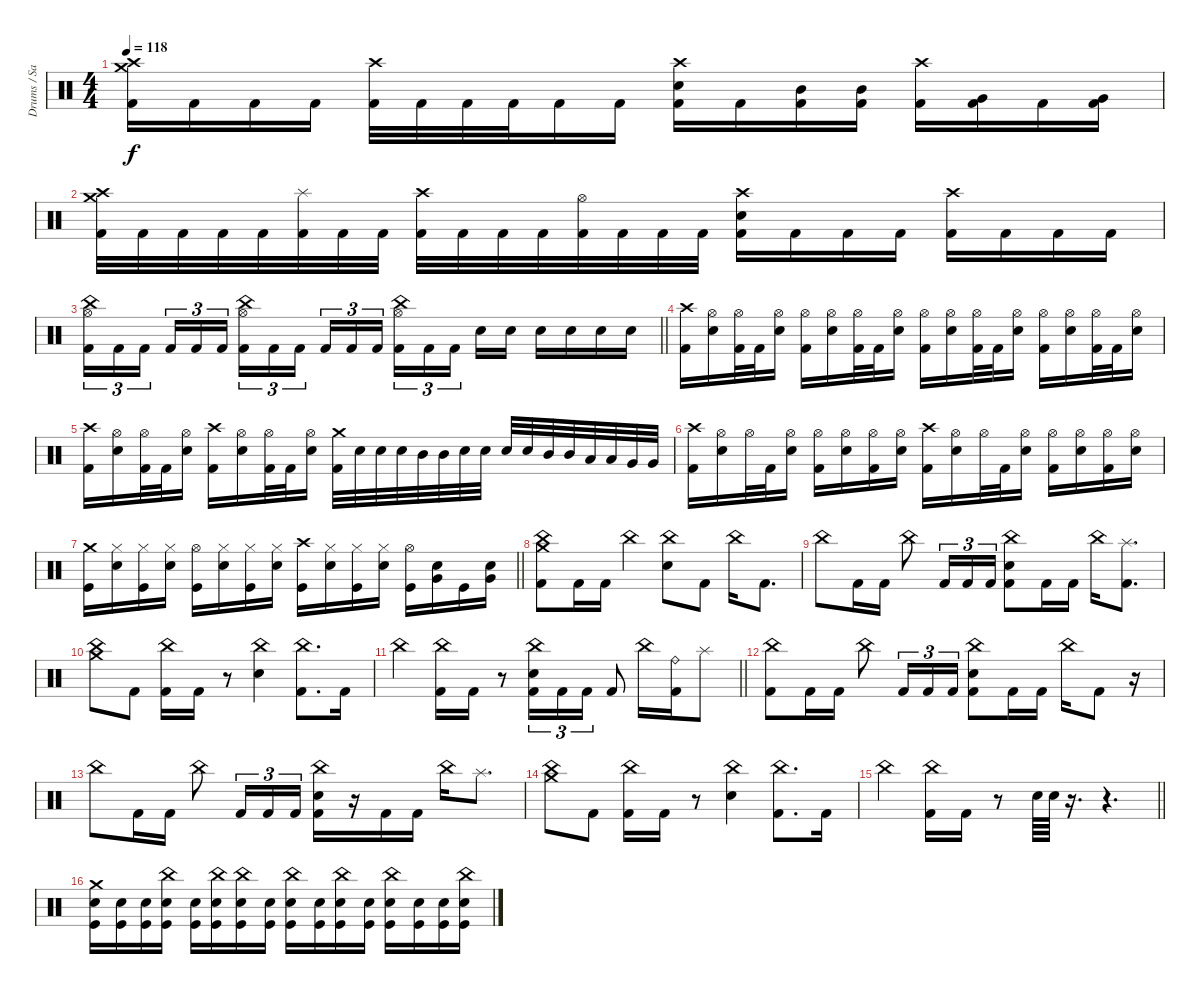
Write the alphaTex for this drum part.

\track ("Drums / Sasha" "Drums / Sa") {instrument percussion}
\staff {score}
\articulation defaults
\ts (4 4)
\tempo 118
\clef neutral
\ks c
("Crash medium (hit)" "Crash high (hit)" "Kick (hit) 2").16{dy f} "Kick (hit) 2".16 "Kick (hit) 2".16 "Kick (hit) 2".16 ("Crash high (hit)" "Kick (hit) 2").32 "Kick (hit) 2".32 "Kick (hit) 2".32 "Kick (hit) 2".32 "Kick (hit) 2".16 "Kick (hit) 2".16 ("Crash high (hit)" "Electric Snare (hit)" "Kick (hit) 2").16 "Kick (hit) 2".16 ("Mid Tom (hit)" "Kick (hit) 2").16 ("Mid Tom (hit)" "Kick (hit) 2").16 ("Crash high (hit)" "Kick (hit) 2").16 ("Very Low Tom (hit)" "Kick (hit) 2").16 "Kick (hit) 2".16 ("Very Low Tom (hit)" "Kick (hit) 2").16 |
("Crash high (hit)" "Crash medium (hit)" "Kick (hit) 2").32 "Kick (hit) 2".32 "Kick (hit) 2".32 "Kick (hit) 2".32 "Kick (hit) 2".32 ("Splash (hit)" "Kick (hit) 2").32 "Kick (hit) 2".32 "Kick (hit) 2".32 ("Crash high (hit)" "Kick (hit) 2").32 "Kick (hit) 2".32 "Kick (hit) 2".32 "Kick (hit) 2".32 ("Hi-Hat (open)" "Kick (hit) 2").32 "Kick (hit) 2".32 "Kick (hit) 2".32 "Kick (hit) 2".32 ("Crash high (hit)" "Electric Snare (hit)" "Kick (hit) 2").16 "Kick (hit) 2".16 "Kick (hit) 2".16 "Kick (hit) 2".16 ("Crash high (hit)" "Kick (hit) 2").16 "Kick (hit) 2".16 "Kick (hit) 2".16 "Kick (hit) 2".16 |
\barLineRight lightlight
("China (hit)" "Hi-Hat (open)" "Kick (hit) 2").16{tu (3 2)} "Kick (hit) 2".16{tu (3 2)} "Kick (hit) 2".16{tu (3 2) beam splitsecondary} "Kick (hit) 2".16{tu (3 2)} "Kick (hit) 2".16{tu (3 2)} "Kick (hit) 2".16{tu (3 2)} ("China (hit)" "Hi-Hat (open)" "Kick (hit) 2").16{tu (3 2)} "Kick (hit) 2".16{tu (3 2)} "Kick (hit) 2".16{tu (3 2) beam splitsecondary} "Kick (hit) 2".16{tu (3 2)} "Kick (hit) 2".16{tu (3 2)} "Kick (hit) 2".16{tu (3 2)} ("China (hit)" "Hi-Hat (open)" "Kick (hit) 2").16{tu (3 2)} "Kick (hit) 2".16{tu (3 2)} "Kick (hit) 2".16{tu (3 2) beam splitsecondary} "Electric Snare (hit)".16 "Electric Snare (hit)".16 "Electric Snare (hit)".16 "Electric Snare (hit)".16 "Electric Snare (hit)".16 "Electric Snare (hit)".16 |
("Crash high (hit)" "Kick (hit) 2").16 ("Hi-Hat (open)" "Electric Snare (hit)").16 ("Hi-Hat (open)" "Kick (hit) 2").32 "Kick (hit) 2".32 ("Hi-Hat (open)" "Electric Snare (hit)").16 ("Hi-Hat (open)" "Kick (hit) 2").16 ("Hi-Hat (open)" "Electric Snare (hit)").16 ("Hi-Hat (open)" "Kick (hit) 2").32 "Kick (hit) 2".32 ("Hi-Hat (open)" "Electric Snare (hit)").16 ("Hi-Hat (open)" "Kick (hit) 2").16 ("Hi-Hat (open)" "Electric Snare (hit)").16 ("Hi-Hat (open)" "Kick (hit) 2").32 "Kick (hit) 2".32 ("Hi-Hat (open)" "Electric Snare (hit)").16 ("Hi-Hat (open)" "Kick (hit) 2").16 ("Hi-Hat (open)" "Electric Snare (hit)").16 ("Hi-Hat (open)" "Kick (hit) 2").32 "Kick (hit) 2".32 ("Hi-Hat (open)" "Electric Snare (hit)").16 |
("Crash high (hit)" "Kick (hit) 2").16 ("Hi-Hat (open)" "Electric Snare (hit)").16 ("Hi-Hat (open)" "Kick (hit) 2").32 "Kick (hit) 2".32 ("Hi-Hat (open)" "Electric Snare (hit)").16 ("Crash high (hit)" "Kick (hit) 2").16 ("Hi-Hat (open)" "Electric Snare (hit)").16 ("Hi-Hat (open)" "Kick (hit) 2").32 "Kick (hit) 2".32 ("Hi-Hat (open)" "Electric Snare (hit)").16 ("Crash medium (hit)" "Kick (hit) 2").32 "Electric Snare (hit)".32 "Electric Snare (hit)".32 "Electric Snare (hit)".32 "Mid Tom (hit)".32 "Mid Tom (hit)".32 "Electric Snare (hit)".32 "Electric Snare (hit)".32 "Electric Snare (hit)".32 "Electric Snare (hit)".32 "Mid Tom (hit)".32 "Mid Tom (hit)".32 "Low Tom (hit)".32 "Low Tom (hit)".32 "Very Low Tom (hit)".32 "Very Low Tom (hit)".32 |
("Crash high (hit)" "Kick (hit) 2").16 ("Hi-Hat (open)" "Electric Snare (hit)").16 "Hi-Hat (open)".32 "Kick (hit) 2".32 ("Hi-Hat (open)" "Electric Snare (hit)").16 ("Hi-Hat (open)" "Kick (hit) 2").16 ("Hi-Hat (open)" "Electric Snare (hit)").16 ("Hi-Hat (open)" "Kick (hit) 2").16 ("Hi-Hat (open)" "Electric Snare (hit)").16 ("Crash high (hit)" "Kick (hit) 2").16 ("Hi-Hat (open)" "Electric Snare (hit)").16 "Hi-Hat (open)".32 "Kick (hit) 2".32 ("Hi-Hat (open)" "Electric Snare (hit)").16 ("Hi-Hat (open)" "Kick (hit) 2").16 ("Hi-Hat (open)" "Electric Snare (hit)").16 ("Hi-Hat (open)" "Kick (hit) 2").16 ("Hi-Hat (open)" "Electric Snare (hit)").16 |
\barLineRight lightlight
("Crash medium (hit)" "Kick (hit)").16 ("Hi-Hat (closed)" "Snare (hit) 2").16 ("Hi-Hat (closed)" "Kick (hit)").16 ("Hi-Hat (closed)" "Snare (hit) 2").16 ("Hi-Hat (open)" "Kick (hit)").16 ("Hi-Hat (closed)" "Snare (hit) 2").16 ("Hi-Hat (closed)" "Kick (hit)").16 ("Hi-Hat (closed)" "Snare (hit) 2").16 ("Crash high (hit)" "Kick (hit)").16 ("Hi-Hat (closed)" "Snare (hit) 2").16 ("Hi-Hat (closed)" "Kick (hit)").16 ("Hi-Hat (closed)" "Snare (hit) 2").16 ("Hi-Hat (open)" "Kick (hit)").16 ("Snare (hit) 2" "Very Low Tom (hit)").16 "Kick (hit)".16 ("Snare (hit) 2" "Very Low Tom (hit)").16 |
("Crash medium (hit)" "China (hit)" "Kick (hit) 2").8 "Kick (hit) 2".16 "Kick (hit) 2".16 "China (hit)".4 ("China (hit)" "Electric Snare (hit)").8 "Kick (hit) 2".8 "China (hit)".16 "Kick (hit) 2".8{d} |
"China (hit)".8 "Kick (hit) 2".16 "Kick (hit) 2".16 "China (hit)".8 "Kick (hit) 2".16{tu (3 2)} "Kick (hit) 2".16{tu (3 2)} "Kick (hit) 2".16{tu (3 2)} ("China (hit)" "Electric Snare (hit)" "Kick (hit) 2").8 "Kick (hit) 2".16 "Kick (hit) 2".16 "China (hit)".16 ("Splash (hit)" "Kick (hit) 2").8{d} |
("Crash medium (hit)" "China (hit)").8 "Kick (hit) 2".8 ("China (hit)" "Kick (hit) 2").16 "Kick (hit) 2".16 r.8 ("China (hit)" "Electric Snare (hit)").4 ("China (hit)" "Kick (hit) 2").8{d} "Kick (hit) 2".16 |
\barLineRight lightlight "China (hit)".4
("China (hit)" "Kick (hit) 2").16 "Kick (hit) 2".16 r.8 ("China (hit)" "Electric Snare (hit)" "Kick (hit) 2").16{tu (3 2)} "Kick (hit) 2".16{tu (3 2)} "Kick (hit) 2".16{tu (3 2)} "Kick (hit) 2".8 "China (hit)".16 ("Ride (bell)" "Kick (hit) 2").16 "Splash (hit)".8 |
("China (hit)" "Kick (hit) 2").8 "Kick (hit) 2".16 "Kick (hit) 2".16 "China (hit)".8 "Kick (hit) 2".16{tu (3 2)} "Kick (hit) 2".16{tu (3 2)} "Kick (hit) 2".16{tu (3 2)} ("China (hit)" "Electric Snare (hit)" "Kick (hit) 2").8 "Kick (hit) 2".16 "Kick (hit) 2".16 "China (hit)".16 "Kick (hit) 2".8 r.16 |
"China (hit)".8 "Kick (hit) 2".16 "Kick (hit) 2".16 "China (hit)".8 "Kick (hit) 2".16{tu (3 2)} "Kick (hit) 2".16{tu (3 2)} "Kick (hit) 2".16{tu (3 2)} ("China (hit)" "Electric Snare (hit)" "Kick (hit) 2").16 r.16 "Kick (hit) 2".16 "Kick (hit) 2".16 "China (hit)".16 "Splash (hit)".8{d} |
("Crash medium (hit)" "China (hit)").8 "Kick (hit) 2".8 ("China (hit)" "Kick (hit) 2").16 "Kick (hit) 2".16 r.8 ("China (hit)" "Electric Snare (hit)").4 ("China (hit)" "Kick (hit) 2").8{d} "Kick (hit) 2".16 |
\barLineRight lightlight "China (hit)".4
("China (hit)" "Kick (hit) 2").16 "Kick (hit) 2".16 r.8 "Electric Snare (hit)".64 "Electric Snare (hit)".64 r.16{d} r.4{d} |
("Kick (hit)" "Snare (hit) 2" "Crash medium (hit)").16 ("Kick (hit)" "Snare (hit) 2").16 ("Kick (hit)" "Snare (hit) 2").16 ("Kick (hit)" "Snare (hit) 2" "China (hit)").16 ("Kick (hit)" "Snare (hit) 2").16 ("Kick (hit)" "Snare (hit) 2" "China (hit)").16 ("Kick (hit)" "Snare (hit) 2" "China (hit)").16 ("Kick (hit)" "Snare (hit) 2").16 ("Kick (hit)" "Snare (hit) 2" "China (hit)").16 ("Kick (hit)" "Snare (hit) 2").16 ("Kick (hit)" "Snare (hit) 2" "China (hit)").16 ("Kick (hit)" "Snare (hit) 2").16 ("Kick (hit)" "Snare (hit) 2" "China (hit)").16 ("Kick (hit)" "Snare (hit) 2").16 ("Kick (hit)" "Snare (hit) 2").16 ("Kick (hit)" "Snare (hit) 2" "China (hit)").16
